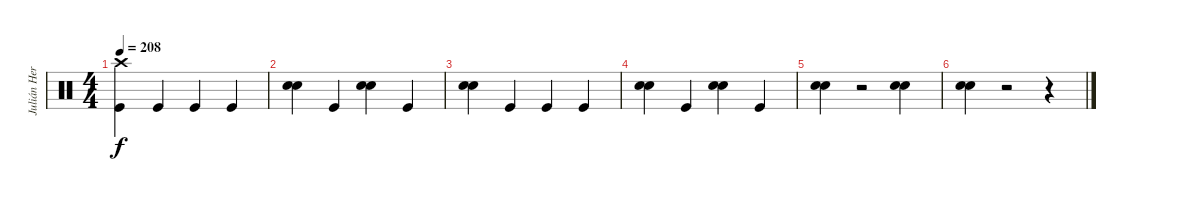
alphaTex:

\track ("Julián Hernandez - Batería" "Julián Her") {instrument percussion}
\staff {score}
\articulation defaults
\ts (4 4)
\tempo 208
\clef neutral
\ks c
("Crash high (hit)" "Kick (hit)").4{dy f} "Kick (hit)".4 "Kick (hit)".4 "Kick (hit)".4 |
("Electric Snare (hit)" "Electric Snare (hit)").4 "Kick (hit)".4 ("Electric Snare (hit)" "Electric Snare (hit)").4 "Kick (hit)".4 |
("Electric Snare (hit)" "Electric Snare (hit)").4 "Kick (hit)".4 "Kick (hit)".4 "Kick (hit)".4 |
("Electric Snare (hit)" "Electric Snare (hit)").4 "Kick (hit)".4 ("Electric Snare (hit)" "Electric Snare (hit)").4 "Kick (hit)".4 |
("Electric Snare (hit)" "Electric Snare (hit)").4 r.2 ("Electric Snare (hit)" "Electric Snare (hit)").4 |
("Electric Snare (hit)" "Electric Snare (hit)").4 r.2 r.4
